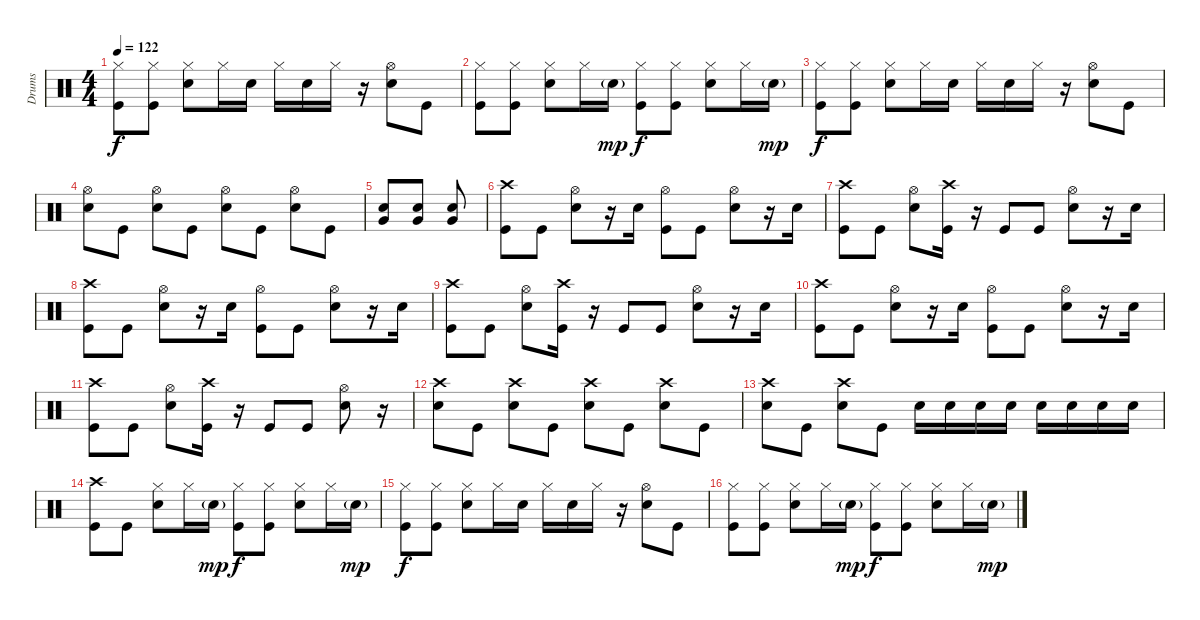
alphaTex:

\track ("Drums" "Drums") {instrument percussion}
\staff {score}
\articulation defaults
\ts (4 4)
\tempo 122
\clef neutral
\ks c
("Hi-Hat (closed)" "Kick (hit)").8{dy f} ("Hi-Hat (closed)" "Kick (hit)").8 ("Hi-Hat (closed)" "Snare (hit) 2").8 "Hi-Hat (closed)".16 "Snare (hit) 2".16 "Hi-Hat (closed)".16 "Snare (hit) 2".16 "Hi-Hat (closed)".16 r.16 ("Hi-Hat (open)" "Snare (hit) 2").8 "Kick (hit)".8 |
("Hi-Hat (closed)" "Kick (hit)").8 ("Hi-Hat (closed)" "Kick (hit)").8 ("Hi-Hat (closed)" "Snare (hit) 2").8 "Hi-Hat (closed)".16 "Snare (hit) 2"{g}.16{dy mp} ("Hi-Hat (closed)" "Kick (hit)").8{dy f} ("Hi-Hat (closed)" "Kick (hit)").8 ("Hi-Hat (closed)" "Snare (hit) 2").8 "Hi-Hat (closed)".16 "Snare (hit) 2"{g}.16{dy mp} |
("Hi-Hat (closed)" "Kick (hit)").8{dy f} ("Hi-Hat (closed)" "Kick (hit)").8 ("Hi-Hat (closed)" "Snare (hit) 2").8 "Hi-Hat (closed)".16 "Snare (hit) 2".16 "Hi-Hat (closed)".16 "Snare (hit) 2".16 "Hi-Hat (closed)".16 r.16 ("Hi-Hat (open)" "Snare (hit) 2").8 "Kick (hit)".8 |
("Hi-Hat (open)" "Snare (hit) 2").8 "Kick (hit)".8 ("Hi-Hat (open)" "Snare (hit) 2").8 "Kick (hit)".8 ("Hi-Hat (open)" "Snare (hit) 2").8 "Kick (hit)".8 ("Hi-Hat (open)" "Snare (hit) 2").8 "Kick (hit)".8 |
("Snare (hit) 2" "Very Low Tom (hit)").8 ("Snare (hit) 2" "Very Low Tom (hit)").8 ("Snare (hit) 2" "Very Low Tom (hit)").8 |
("Crash high (hit)" "Kick (hit)").8 "Kick (hit)".8 ("Hi-Hat (open)" "Snare (hit) 2").8 r.16 "Snare (hit) 2".16 ("Hi-Hat (open)" "Kick (hit)").8 "Kick (hit)".8 ("Hi-Hat (open)" "Snare (hit) 2").8 r.16 "Snare (hit) 2".16 |
("Crash high (hit)" "Kick (hit)").8 "Kick (hit)".8 ("Hi-Hat (open)" "Snare (hit) 2").8 ("Crash high (hit)" "Kick (hit)").16 r.16 "Kick (hit)".8 "Kick (hit)".8 ("Hi-Hat (open)" "Snare (hit) 2").8 r.16 "Snare (hit) 2".16 |
("Crash high (hit)" "Kick (hit)").8 "Kick (hit)".8 ("Hi-Hat (open)" "Snare (hit) 2").8 r.16 "Snare (hit) 2".16 ("Hi-Hat (open)" "Kick (hit)").8 "Kick (hit)".8 ("Hi-Hat (open)" "Snare (hit) 2").8 r.16 "Snare (hit) 2".16 |
("Crash high (hit)" "Kick (hit)").8 "Kick (hit)".8 ("Hi-Hat (open)" "Snare (hit) 2").8 ("Crash high (hit)" "Kick (hit)").16 r.16 "Kick (hit)".8 "Kick (hit)".8 ("Hi-Hat (open)" "Snare (hit) 2").8 r.16 "Snare (hit) 2".16 |
("Crash high (hit)" "Kick (hit)").8 "Kick (hit)".8 ("Hi-Hat (open)" "Snare (hit) 2").8 r.16 "Snare (hit) 2".16 ("Hi-Hat (open)" "Kick (hit)").8 "Kick (hit)".8 ("Hi-Hat (open)" "Snare (hit) 2").8 r.16 "Snare (hit) 2".16 |
("Crash high (hit)" "Kick (hit)").8 "Kick (hit)".8 ("Hi-Hat (open)" "Snare (hit) 2").8 ("Crash high (hit)" "Kick (hit)").16 r.16 "Kick (hit)".8 "Kick (hit)".8 ("Hi-Hat (open)" "Snare (hit) 2").8 r.16 |
("Crash high (hit)" "Snare (hit) 2").8 "Kick (hit)".8 ("Crash high (hit)" "Snare (hit) 2").8 "Kick (hit)".8 ("Crash high (hit)" "Snare (hit) 2").8 "Kick (hit)".8 ("Crash high (hit)" "Snare (hit) 2").8 "Kick (hit)".8 |
("Crash high (hit)" "Snare (hit) 2").8 "Kick (hit)".8 ("Crash high (hit)" "Snare (hit) 2").8 "Kick (hit)".8 "Snare (hit) 2".16 "Snare (hit) 2".16 "Snare (hit) 2".16 "Snare (hit) 2".16 "Snare (hit) 2".16 "Snare (hit) 2".16 "Snare (hit) 2".16 "Snare (hit) 2".16 |
("Crash high (hit)" "Kick (hit)").8 "Kick (hit)".8 ("Hi-Hat (closed)" "Snare (hit) 2").8 "Hi-Hat (closed)".16 "Snare (hit) 2"{g}.16{dy mp} ("Hi-Hat (closed)" "Kick (hit)").8{dy f} ("Hi-Hat (closed)" "Kick (hit)").8 ("Hi-Hat (closed)" "Snare (hit) 2").8 "Hi-Hat (closed)".16 "Snare (hit) 2"{g}.16{dy mp} |
("Hi-Hat (closed)" "Kick (hit)").8{dy f} ("Hi-Hat (closed)" "Kick (hit)").8 ("Hi-Hat (closed)" "Snare (hit) 2").8 "Hi-Hat (closed)".16 "Snare (hit) 2".16 "Hi-Hat (closed)".16 "Snare (hit) 2".16 "Hi-Hat (closed)".16 r.16 ("Hi-Hat (open)" "Snare (hit) 2").8 "Kick (hit)".8 |
("Hi-Hat (closed)" "Kick (hit)").8 ("Hi-Hat (closed)" "Kick (hit)").8 ("Hi-Hat (closed)" "Snare (hit) 2").8 "Hi-Hat (closed)".16 "Snare (hit) 2"{g}.16{dy mp} ("Hi-Hat (closed)" "Kick (hit)").8{dy f} ("Hi-Hat (closed)" "Kick (hit)").8 ("Hi-Hat (closed)" "Snare (hit) 2").8 "Hi-Hat (closed)".16 "Snare (hit) 2"{g}.16{dy mp}
